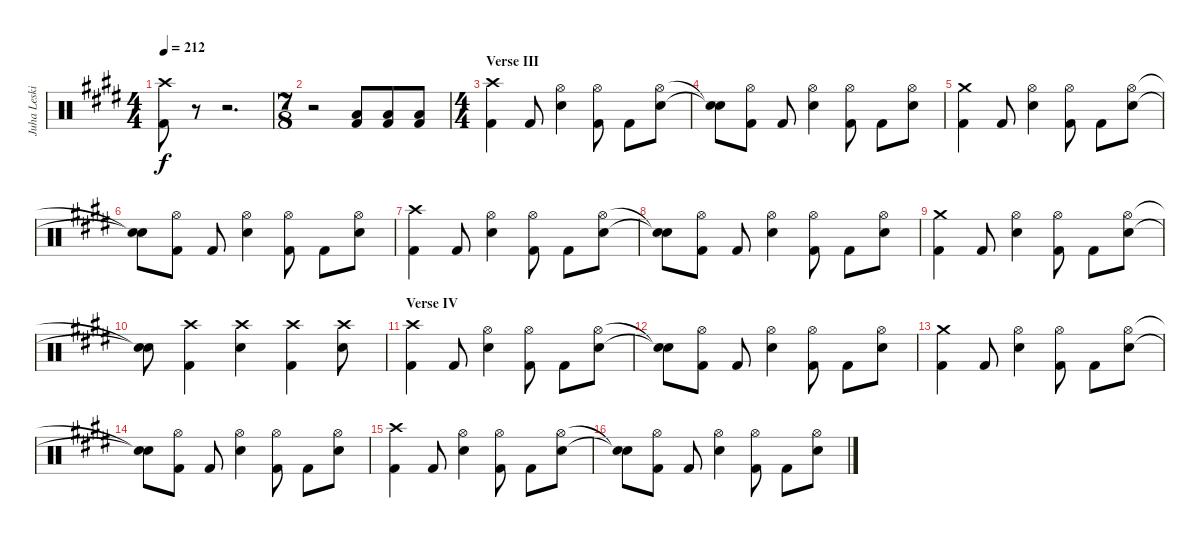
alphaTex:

\track ("Juha Leskinen - Drums" "Juha Leski") {instrument percussion}
\staff {score}
\articulation defaults
\ts (4 4)
\tempo 212
\clef neutral
\ks c#minor
("Crash high (hit)"{t} "Kick (hit) 2"{t}).8{dy f} r.8 r.2{d} |
\ts (7 8)
r.2 ("Low Tom (hit)" "Kick (hit) 2").8 ("Low Tom (hit)" "Kick (hit) 2").8 ("Low Tom (hit)" "Kick (hit) 2").8 |
\ts (4 4)
\section ("" "Verse III")
("Crash high (hit)" "Kick (hit) 2").4 "Kick (hit) 2".8 ("Hi-Hat (open)" "Electric Snare (hit)").4 ("Hi-Hat (open)" "Kick (hit) 2").8 "Kick (hit) 2".8 ("Hi-Hat (open)" "Electric Snare (hit)").8 |
("Snare (hit)"{t} "Snare (hit)"{t}).8 ("Hi-Hat (open)" "Kick (hit) 2").8 "Kick (hit) 2".8 ("Hi-Hat (open)" "Electric Snare (hit)").4 ("Hi-Hat (open)" "Kick (hit) 2").8 "Kick (hit) 2".8 ("Hi-Hat (open)" "Electric Snare (hit)").8 |
("Crash medium (hit)" "Kick (hit) 2").4 "Kick (hit) 2".8 ("Hi-Hat (open)" "Electric Snare (hit)").4 ("Hi-Hat (open)" "Kick (hit) 2").8 "Kick (hit) 2".8 ("Hi-Hat (open)" "Electric Snare (hit)").8 |
("Snare (hit)"{t} "Snare (hit)"{t}).8 ("Hi-Hat (open)" "Kick (hit) 2").8 "Kick (hit) 2".8 ("Hi-Hat (open)" "Electric Snare (hit)").4 ("Hi-Hat (open)" "Kick (hit) 2").8 "Kick (hit) 2".8 ("Hi-Hat (open)" "Electric Snare (hit)").8 |
("Crash high (hit)" "Kick (hit) 2").4 "Kick (hit) 2".8 ("Hi-Hat (open)" "Electric Snare (hit)").4 ("Hi-Hat (open)" "Kick (hit) 2").8 "Kick (hit) 2".8 ("Hi-Hat (open)" "Electric Snare (hit)").8 |
("Snare (hit)"{t} "Snare (hit)"{t}).8 ("Hi-Hat (open)" "Kick (hit) 2").8 "Kick (hit) 2".8 ("Hi-Hat (open)" "Electric Snare (hit)").4 ("Hi-Hat (open)" "Kick (hit) 2").8 "Kick (hit) 2".8 ("Hi-Hat (open)" "Electric Snare (hit)").8 |
("Crash medium (hit)" "Kick (hit) 2").4 "Kick (hit) 2".8 ("Hi-Hat (open)" "Electric Snare (hit)").4 ("Hi-Hat (open)" "Kick (hit) 2").8 "Kick (hit) 2".8 ("Hi-Hat (open)" "Electric Snare (hit)").8 |
("Snare (hit)"{t} "Snare (hit)"{t}).8 ("Crash high (hit)" "Kick (hit) 2").4 ("Crash high (hit)" "Electric Snare (hit)").4 ("Crash high (hit)" "Kick (hit) 2").4 ("Crash high (hit)" "Electric Snare (hit)").8 |
\section ("" "Verse IV")
("Crash high (hit)" "Kick (hit) 2").4 "Kick (hit) 2".8 ("Hi-Hat (open)" "Electric Snare (hit)").4 ("Hi-Hat (open)" "Kick (hit) 2").8 "Kick (hit) 2".8 ("Hi-Hat (open)" "Electric Snare (hit)").8 |
("Snare (hit)"{t} "Snare (hit)"{t}).8 ("Hi-Hat (open)" "Kick (hit) 2").8 "Kick (hit) 2".8 ("Hi-Hat (open)" "Electric Snare (hit)").4 ("Hi-Hat (open)" "Kick (hit) 2").8 "Kick (hit) 2".8 ("Hi-Hat (open)" "Electric Snare (hit)").8 |
("Crash medium (hit)" "Kick (hit) 2").4 "Kick (hit) 2".8 ("Hi-Hat (open)" "Electric Snare (hit)").4 ("Hi-Hat (open)" "Kick (hit) 2").8 "Kick (hit) 2".8 ("Hi-Hat (open)" "Electric Snare (hit)").8 |
("Snare (hit)"{t} "Snare (hit)"{t}).8 ("Hi-Hat (open)" "Kick (hit) 2").8 "Kick (hit) 2".8 ("Hi-Hat (open)" "Electric Snare (hit)").4 ("Hi-Hat (open)" "Kick (hit) 2").8 "Kick (hit) 2".8 ("Hi-Hat (open)" "Electric Snare (hit)").8 |
("Crash high (hit)" "Kick (hit) 2").4 "Kick (hit) 2".8 ("Hi-Hat (open)" "Electric Snare (hit)").4 ("Hi-Hat (open)" "Kick (hit) 2").8 "Kick (hit) 2".8 ("Hi-Hat (open)" "Electric Snare (hit)").8 |
("Snare (hit)"{t} "Snare (hit)"{t}).8 ("Hi-Hat (open)" "Kick (hit) 2").8 "Kick (hit) 2".8 ("Hi-Hat (open)" "Electric Snare (hit)").4 ("Hi-Hat (open)" "Kick (hit) 2").8 "Kick (hit) 2".8 ("Hi-Hat (open)" "Electric Snare (hit)").8
